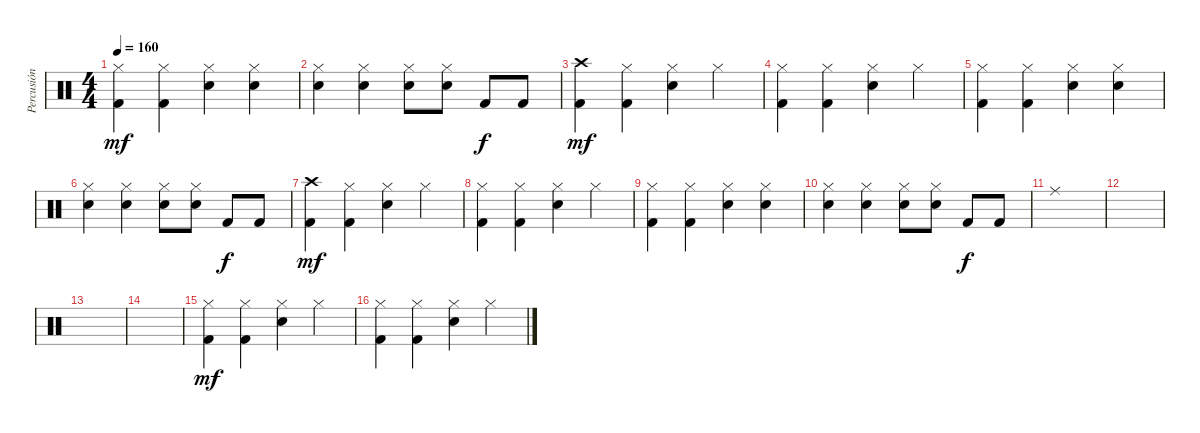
\track ("Percusión" "Percusión") {instrument percussion}
\staff {score}
\articulation defaults
\ts (4 4)
\tempo 160
\clef neutral
\ks c
("Hi-Hat (closed)" "Kick (hit) 2").4{dy mf} ("Hi-Hat (closed)" "Kick (hit) 2").4 ("Hi-Hat (closed)" "Snare (hit) 2").4 ("Hi-Hat (closed)" "Snare (hit) 2").4 |
("Hi-Hat (closed)" "Snare (hit) 2").4 ("Hi-Hat (closed)" "Electric Snare (hit)").4 ("Hi-Hat (closed)" "Snare (hit) 2").8 ("Hi-Hat (closed)" "Snare (hit) 2").8 "Kick (hit) 2".8{dy f} "Kick (hit) 2".8 |
("Crash high (hit)" "Kick (hit) 2").4{dy mf} ("Hi-Hat (closed)" "Kick (hit) 2").4 ("Hi-Hat (closed)" "Snare (hit) 2").4 "Hi-Hat (closed)".4 |
("Hi-Hat (closed)" "Kick (hit) 2").4 ("Hi-Hat (closed)" "Kick (hit) 2").4 ("Hi-Hat (closed)" "Snare (hit) 2").4 "Hi-Hat (closed)".4 |
("Hi-Hat (closed)" "Kick (hit) 2").4 ("Hi-Hat (closed)" "Kick (hit) 2").4 ("Hi-Hat (closed)" "Snare (hit) 2").4 ("Hi-Hat (closed)" "Snare (hit) 2").4 |
("Hi-Hat (closed)" "Snare (hit) 2").4 ("Hi-Hat (closed)" "Electric Snare (hit)").4 ("Hi-Hat (closed)" "Snare (hit) 2").8 ("Hi-Hat (closed)" "Snare (hit) 2").8 "Kick (hit) 2".8{dy f} "Kick (hit) 2".8 |
("Crash high (hit)" "Kick (hit) 2").4{dy mf} ("Hi-Hat (closed)" "Kick (hit) 2").4 ("Hi-Hat (closed)" "Snare (hit) 2").4 "Hi-Hat (closed)".4 |
("Hi-Hat (closed)" "Kick (hit) 2").4 ("Hi-Hat (closed)" "Kick (hit) 2").4 ("Hi-Hat (closed)" "Snare (hit) 2").4 "Hi-Hat (closed)".4 |
("Hi-Hat (closed)" "Kick (hit) 2").4 ("Hi-Hat (closed)" "Kick (hit) 2").4 ("Hi-Hat (closed)" "Snare (hit) 2").4 ("Hi-Hat (closed)" "Snare (hit) 2").4 |
("Hi-Hat (closed)" "Snare (hit) 2").4 ("Hi-Hat (closed)" "Electric Snare (hit)").4 ("Hi-Hat (closed)" "Snare (hit) 2").8 ("Hi-Hat (closed)" "Snare (hit) 2").8 "Kick (hit) 2".8{dy f} "Kick (hit) 2".8 |
"Ride (middle)".1 |
|
|
|
("Hi-Hat (closed)" "Kick (hit) 2").4{dy mf} ("Hi-Hat (closed)" "Kick (hit) 2").4 ("Hi-Hat (closed)" "Snare (hit) 2").4 "Hi-Hat (closed)".4 |
("Hi-Hat (closed)" "Kick (hit) 2").4 ("Hi-Hat (closed)" "Kick (hit) 2").4 ("Hi-Hat (closed)" "Snare (hit) 2").4 "Hi-Hat (closed)".4
